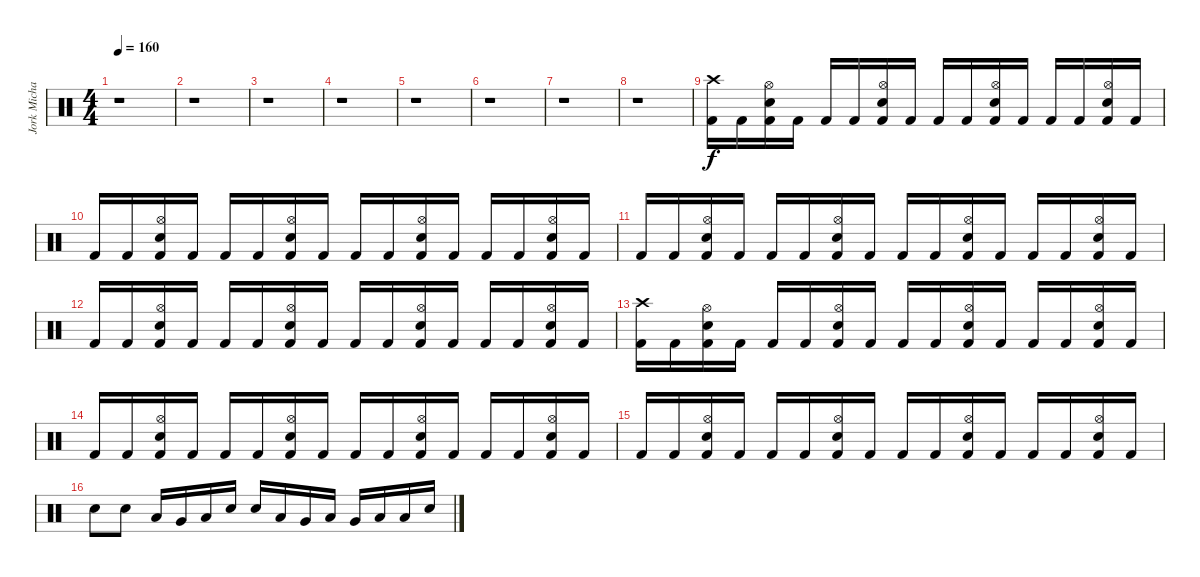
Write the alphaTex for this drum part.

\track ("Jork Michael" "Jork Micha") {instrument percussion}
\staff {score}
\articulation defaults
\ts (4 4)
\tempo 160
\clef neutral
\ks c
r.1{dy f} |
r.1 |
r.1 |
r.1 |
r.1 |
r.1 |
r.1 |
r.1 |
("Crash high (hit)" "Kick (hit) 2").16 "Kick (hit) 2".16 ("Hi-Hat (open)" "Electric Snare (hit)" "Kick (hit) 2").16 "Kick (hit) 2".16 "Kick (hit) 2".16 "Kick (hit) 2".16 ("Hi-Hat (open)" "Electric Snare (hit)" "Kick (hit) 2").16 "Kick (hit) 2".16 "Kick (hit) 2".16 "Kick (hit) 2".16 ("Hi-Hat (open)" "Electric Snare (hit)" "Kick (hit) 2").16 "Kick (hit) 2".16 "Kick (hit) 2".16 "Kick (hit) 2".16 ("Hi-Hat (open)" "Electric Snare (hit)" "Kick (hit) 2").16 "Kick (hit) 2".16 |
"Kick (hit) 2".16 "Kick (hit) 2".16 ("Hi-Hat (open)" "Electric Snare (hit)" "Kick (hit) 2").16 "Kick (hit) 2".16 "Kick (hit) 2".16 "Kick (hit) 2".16 ("Hi-Hat (open)" "Electric Snare (hit)" "Kick (hit) 2").16 "Kick (hit) 2".16 "Kick (hit) 2".16 "Kick (hit) 2".16 ("Hi-Hat (open)" "Electric Snare (hit)" "Kick (hit) 2").16 "Kick (hit) 2".16 "Kick (hit) 2".16 "Kick (hit) 2".16 ("Hi-Hat (open)" "Electric Snare (hit)" "Kick (hit) 2").16 "Kick (hit) 2".16 |
"Kick (hit) 2".16 "Kick (hit) 2".16 ("Hi-Hat (open)" "Electric Snare (hit)" "Kick (hit) 2").16 "Kick (hit) 2".16 "Kick (hit) 2".16 "Kick (hit) 2".16 ("Hi-Hat (open)" "Electric Snare (hit)" "Kick (hit) 2").16 "Kick (hit) 2".16 "Kick (hit) 2".16 "Kick (hit) 2".16 ("Hi-Hat (open)" "Electric Snare (hit)" "Kick (hit) 2").16 "Kick (hit) 2".16 "Kick (hit) 2".16 "Kick (hit) 2".16 ("Hi-Hat (open)" "Electric Snare (hit)" "Kick (hit) 2").16 "Kick (hit) 2".16 |
"Kick (hit) 2".16 "Kick (hit) 2".16 ("Hi-Hat (open)" "Electric Snare (hit)" "Kick (hit) 2").16 "Kick (hit) 2".16 "Kick (hit) 2".16 "Kick (hit) 2".16 ("Hi-Hat (open)" "Electric Snare (hit)" "Kick (hit) 2").16 "Kick (hit) 2".16 "Kick (hit) 2".16 "Kick (hit) 2".16 ("Hi-Hat (open)" "Electric Snare (hit)" "Kick (hit) 2").16 "Kick (hit) 2".16 "Kick (hit) 2".16 "Kick (hit) 2".16 ("Hi-Hat (open)" "Electric Snare (hit)" "Kick (hit) 2").16 "Kick (hit) 2".16 |
("Crash high (hit)" "Kick (hit) 2").16 "Kick (hit) 2".16 ("Hi-Hat (open)" "Electric Snare (hit)" "Kick (hit) 2").16 "Kick (hit) 2".16 "Kick (hit) 2".16 "Kick (hit) 2".16 ("Hi-Hat (open)" "Electric Snare (hit)" "Kick (hit) 2").16 "Kick (hit) 2".16 "Kick (hit) 2".16 "Kick (hit) 2".16 ("Hi-Hat (open)" "Electric Snare (hit)" "Kick (hit) 2").16 "Kick (hit) 2".16 "Kick (hit) 2".16 "Kick (hit) 2".16 ("Hi-Hat (open)" "Electric Snare (hit)" "Kick (hit) 2").16 "Kick (hit) 2".16 |
"Kick (hit) 2".16 "Kick (hit) 2".16 ("Hi-Hat (open)" "Electric Snare (hit)" "Kick (hit) 2").16 "Kick (hit) 2".16 "Kick (hit) 2".16 "Kick (hit) 2".16 ("Hi-Hat (open)" "Electric Snare (hit)" "Kick (hit) 2").16 "Kick (hit) 2".16 "Kick (hit) 2".16 "Kick (hit) 2".16 ("Hi-Hat (open)" "Electric Snare (hit)" "Kick (hit) 2").16 "Kick (hit) 2".16 "Kick (hit) 2".16 "Kick (hit) 2".16 ("Hi-Hat (open)" "Electric Snare (hit)" "Kick (hit) 2").16 "Kick (hit) 2".16 |
"Kick (hit) 2".16 "Kick (hit) 2".16 ("Hi-Hat (open)" "Electric Snare (hit)" "Kick (hit) 2").16 "Kick (hit) 2".16 "Kick (hit) 2".16 "Kick (hit) 2".16 ("Hi-Hat (open)" "Electric Snare (hit)" "Kick (hit) 2").16 "Kick (hit) 2".16 "Kick (hit) 2".16 "Kick (hit) 2".16 ("Hi-Hat (open)" "Electric Snare (hit)" "Kick (hit) 2").16 "Kick (hit) 2".16 "Kick (hit) 2".16 "Kick (hit) 2".16 ("Hi-Hat (open)" "Electric Snare (hit)" "Kick (hit) 2").16 "Kick (hit) 2".16 |
"Electric Snare (hit)".8 "Electric Snare (hit)".8 "Low Floor Tom (hit)".16 "Very Low Tom (hit)".16 "Low Floor Tom (hit)".16 "Electric Snare (hit)".16 "Electric Snare (hit)".16 "Low Floor Tom (hit)".16 "Very Low Tom (hit)".16 "Low Tom (hit)".16 "Very Low Tom (hit)".16 "Low Tom (hit)".16 "Low Floor Tom (hit)".16 "Electric Snare (hit)".16
